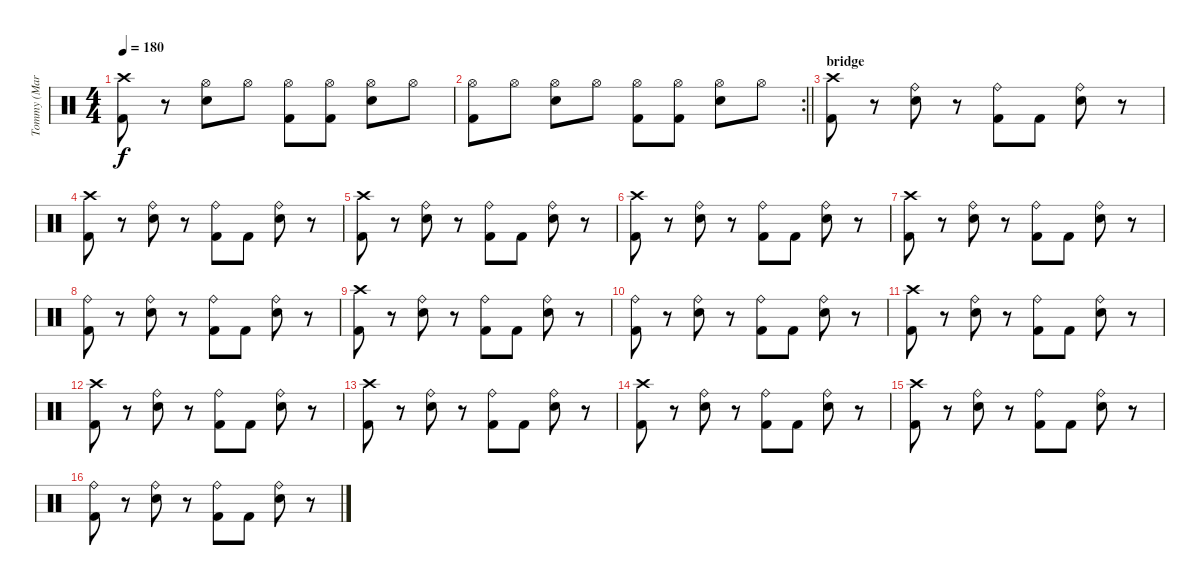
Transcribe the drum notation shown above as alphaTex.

\track ("Tommy (Marky)" "Tommy (Mar") {instrument percussion}
\staff {score}
\articulation defaults
\ts (4 4)
\tempo 180
\clef neutral
\ks c
("Crash high (hit)" "Kick (hit) 2").8{dy f} r.8 ("Hi-Hat (open)" "Snare (hit) 2").8 "Hi-Hat (open)".8 ("Hi-Hat (open)" "Kick (hit) 2").8 ("Hi-Hat (open)" "Kick (hit) 2").8 ("Hi-Hat (open)" "Snare (hit) 2").8 "Hi-Hat (open)".8 |
\rc 2
\barLineRight lightlight
("Hi-Hat (open)" "Kick (hit) 2").8 "Hi-Hat (open)".8 ("Hi-Hat (open)" "Snare (hit) 2").8 "Hi-Hat (open)".8 ("Hi-Hat (open)" "Kick (hit) 2").8 ("Hi-Hat (open)" "Kick (hit) 2").8 ("Hi-Hat (open)" "Snare (hit) 2").8 "Hi-Hat (open)".8 |
\section ("" "bridge")
("Crash high (hit)" "Kick (hit) 2").8 r.8 ("Ride (bell)" "Snare (hit) 2").8 r.8 ("Ride (bell)" "Kick (hit) 2").8 "Kick (hit) 2".8 ("Ride (bell)" "Snare (hit) 2").8 r.8 |
("Crash high (hit)" "Kick (hit) 2").8 r.8 ("Ride (bell)" "Snare (hit) 2").8 r.8 ("Ride (bell)" "Kick (hit) 2").8 "Kick (hit) 2".8 ("Ride (bell)" "Snare (hit) 2").8 r.8 |
("Crash high (hit)" "Kick (hit) 2").8 r.8 ("Ride (bell)" "Snare (hit) 2").8 r.8 ("Ride (bell)" "Kick (hit) 2").8 "Kick (hit) 2".8 ("Ride (bell)" "Snare (hit) 2").8 r.8 |
("Crash high (hit)" "Kick (hit) 2").8 r.8 ("Ride (bell)" "Snare (hit) 2").8 r.8 ("Ride (bell)" "Kick (hit) 2").8 "Kick (hit) 2".8 ("Ride (bell)" "Snare (hit) 2").8 r.8 |
("Crash high (hit)" "Kick (hit) 2").8 r.8 ("Ride (bell)" "Snare (hit) 2").8 r.8 ("Ride (bell)" "Kick (hit) 2").8 "Kick (hit) 2".8 ("Ride (bell)" "Snare (hit) 2").8 r.8 |
("Ride (bell)" "Kick (hit) 2").8 r.8 ("Ride (bell)" "Snare (hit) 2").8 r.8 ("Ride (bell)" "Kick (hit) 2").8 "Kick (hit) 2".8 ("Ride (bell)" "Snare (hit) 2").8 r.8 |
("Crash high (hit)" "Kick (hit) 2").8 r.8 ("Ride (bell)" "Snare (hit) 2").8 r.8 ("Ride (bell)" "Kick (hit) 2").8 "Kick (hit) 2".8 ("Ride (bell)" "Snare (hit) 2").8 r.8 |
("Ride (bell)" "Kick (hit) 2").8 r.8 ("Ride (bell)" "Snare (hit) 2").8 r.8 ("Ride (bell)" "Kick (hit) 2").8 "Kick (hit) 2".8 ("Ride (bell)" "Snare (hit) 2").8 r.8 |
("Crash high (hit)" "Kick (hit) 2").8 r.8 ("Ride (bell)" "Snare (hit) 2").8 r.8 ("Ride (bell)" "Kick (hit) 2").8 "Kick (hit) 2".8 ("Ride (bell)" "Snare (hit) 2").8 r.8 |
("Crash high (hit)" "Kick (hit) 2").8 r.8 ("Ride (bell)" "Snare (hit) 2").8 r.8 ("Ride (bell)" "Kick (hit) 2").8 "Kick (hit) 2".8 ("Ride (bell)" "Snare (hit) 2").8 r.8 |
("Crash high (hit)" "Kick (hit) 2").8 r.8 ("Ride (bell)" "Snare (hit) 2").8 r.8 ("Ride (bell)" "Kick (hit) 2").8 "Kick (hit) 2".8 ("Ride (bell)" "Snare (hit) 2").8 r.8 |
("Crash high (hit)" "Kick (hit) 2").8 r.8 ("Ride (bell)" "Snare (hit) 2").8 r.8 ("Ride (bell)" "Kick (hit) 2").8 "Kick (hit) 2".8 ("Ride (bell)" "Snare (hit) 2").8 r.8 |
("Crash high (hit)" "Kick (hit) 2").8 r.8 ("Ride (bell)" "Snare (hit) 2").8 r.8 ("Ride (bell)" "Kick (hit) 2").8 "Kick (hit) 2".8 ("Ride (bell)" "Snare (hit) 2").8 r.8 |
("Ride (bell)" "Kick (hit) 2").8 r.8 ("Ride (bell)" "Snare (hit) 2").8 r.8 ("Ride (bell)" "Kick (hit) 2").8 "Kick (hit) 2".8 ("Ride (bell)" "Snare (hit) 2").8 r.8
